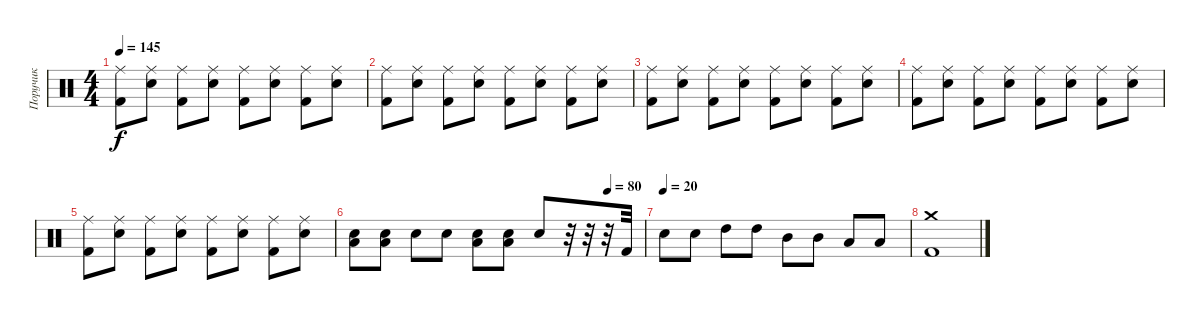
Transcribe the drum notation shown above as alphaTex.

\track ("Поручик" "Поручик") {instrument percussion}
\staff {score}
\articulation defaults
\ts (4 4)
\tempo 145
\clef neutral
\ks c
("Ride (middle)" "Kick (hit) 2").8{dy f} ("Ride (middle)" "Snare (hit) 2").8 ("Ride (middle)" "Kick (hit) 2").8 ("Ride (middle)" "Snare (hit) 2").8 ("Ride (middle)" "Kick (hit) 2").8 ("Ride (middle)" "Snare (hit) 2").8 ("Ride (middle)" "Kick (hit) 2").8 ("Ride (middle)" "Snare (hit) 2").8 |
("Ride (middle)" "Kick (hit) 2").8 ("Ride (middle)" "Snare (hit) 2").8 ("Ride (middle)" "Kick (hit) 2").8 ("Ride (middle)" "Snare (hit) 2").8 ("Ride (middle)" "Kick (hit) 2").8 ("Ride (middle)" "Snare (hit) 2").8 ("Ride (middle)" "Kick (hit) 2").8 ("Ride (middle)" "Snare (hit) 2").8 |
("Ride (middle)" "Kick (hit) 2").8 ("Ride (middle)" "Snare (hit) 2").8 ("Ride (middle)" "Kick (hit) 2").8 ("Ride (middle)" "Snare (hit) 2").8 ("Ride (middle)" "Kick (hit) 2").8 ("Ride (middle)" "Snare (hit) 2").8 ("Ride (middle)" "Kick (hit) 2").8 ("Ride (middle)" "Snare (hit) 2").8 |
("Ride (middle)" "Kick (hit) 2").8 ("Ride (middle)" "Snare (hit) 2").8 ("Ride (middle)" "Kick (hit) 2").8 ("Ride (middle)" "Snare (hit) 2").8 ("Ride (middle)" "Kick (hit) 2").8 ("Ride (middle)" "Snare (hit) 2").8 ("Ride (middle)" "Kick (hit) 2").8 ("Ride (middle)" "Snare (hit) 2").8 |
("Ride (middle)" "Kick (hit) 2").8 ("Ride (middle)" "Snare (hit) 2").8 ("Ride (middle)" "Kick (hit) 2").8 ("Ride (middle)" "Snare (hit) 2").8 ("Ride (middle)" "Kick (hit) 2").8 ("Ride (middle)" "Snare (hit) 2").8 ("Ride (middle)" "Kick (hit) 2").8 ("Ride (middle)" "Snare (hit) 2").8 |
\tempo (80 0.875)
("Snare (hit) 2" "Low Tom (hit)").8 ("Snare (hit) 2" "Low Tom (hit)").8 "Snare (hit)".8 "Snare (hit)".8 ("Snare (hit) 2" "Low Tom (hit)").8 ("Snare (hit) 2" "Low Tom (hit)").8 "Snare (hit)".8 r.32 r.32 r.32 "Kick (hit) 2".32 |
\tempo (20)
"Snare (hit) 2".8 "Snare (hit) 2".8 "High Tom (hit)".8 "High Tom (hit)".8 "Mid Tom (hit)".8 "Mid Tom (hit)".8 "Low Tom (hit)".8 "Low Tom (hit)".8 |
("Crash medium (hit)" "Kick (hit) 2").1
